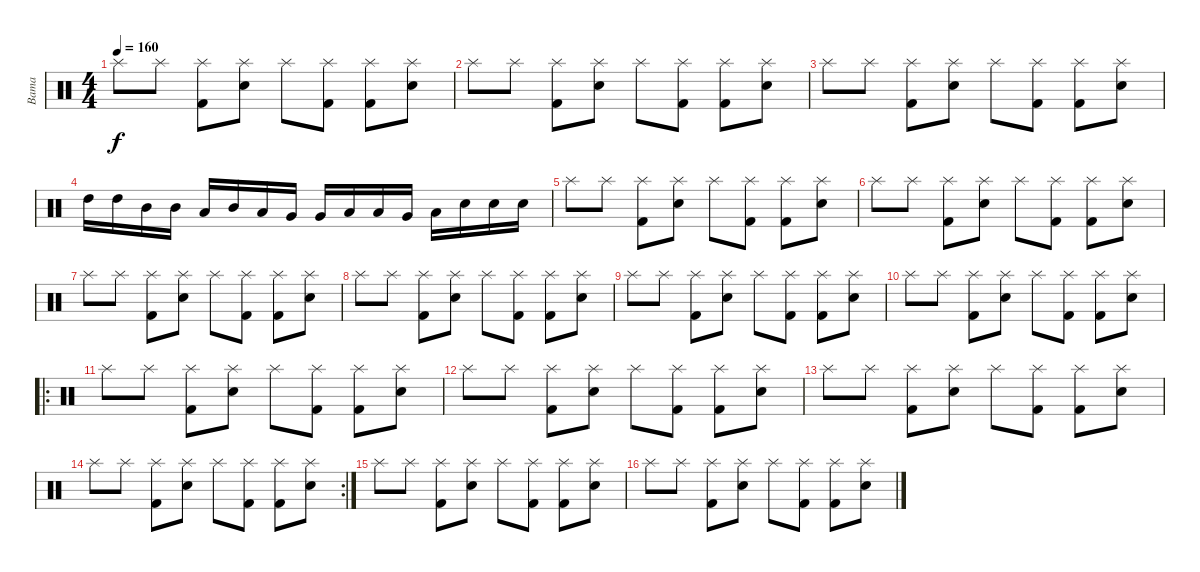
\track ("Bama" "Bama") {instrument percussion}
\staff {score}
\articulation defaults
\ts (4 4)
\tempo 160
\clef neutral
\ks c "Splash (hit)".8{dy f} "Splash (hit)".8
("Splash (hit)" "Kick (hit) 2").8 ("Splash (hit)" "Electric Snare (hit)").8 "Splash (hit)".8 ("Splash (hit)" "Kick (hit) 2").8 ("Splash (hit)" "Kick (hit) 2").8 ("Splash (hit)" "Electric Snare (hit)").8 |
"Splash (hit)".8 "Splash (hit)".8 ("Splash (hit)" "Kick (hit) 2").8 ("Splash (hit)" "Electric Snare (hit)").8 "Splash (hit)".8 ("Splash (hit)" "Kick (hit) 2").8 ("Splash (hit)" "Kick (hit) 2").8 ("Splash (hit)" "Electric Snare (hit)").8 |
"Splash (hit)".8 "Splash (hit)".8 ("Splash (hit)" "Kick (hit) 2").8 ("Splash (hit)" "Electric Snare (hit)").8 "Splash (hit)".8 ("Splash (hit)" "Kick (hit) 2").8 ("Splash (hit)" "Kick (hit) 2").8 ("Splash (hit)" "Electric Snare (hit)").8 |
"High Tom (hit)".16 "High Tom (hit)".16 "Mid Tom (hit)".16 "Mid Tom (hit)".16 "Low Tom (hit)".16 "Mid Tom (hit)".16 "Low Tom (hit)".16 "Very Low Tom (hit)".16 "Very Low Tom (hit)".16 "Low Floor Tom (hit)".16 "Low Floor Tom (hit)".16 "Very Low Tom (hit)".16 "Low Floor Tom (hit)".16 "Electric Snare (hit)".16 "Electric Snare (hit)".16 "Electric Snare (hit)".16 |
"Splash (hit)".8 "Splash (hit)".8 ("Splash (hit)" "Kick (hit) 2").8 ("Splash (hit)" "Electric Snare (hit)").8 "Splash (hit)".8 ("Splash (hit)" "Kick (hit) 2").8 ("Splash (hit)" "Kick (hit) 2").8 ("Splash (hit)" "Electric Snare (hit)").8 |
"Splash (hit)".8 "Splash (hit)".8 ("Splash (hit)" "Kick (hit) 2").8 ("Splash (hit)" "Electric Snare (hit)").8 "Splash (hit)".8 ("Splash (hit)" "Kick (hit) 2").8 ("Splash (hit)" "Kick (hit) 2").8 ("Splash (hit)" "Electric Snare (hit)").8 |
"Splash (hit)".8 "Splash (hit)".8 ("Splash (hit)" "Kick (hit) 2").8 ("Splash (hit)" "Electric Snare (hit)").8 "Splash (hit)".8 ("Splash (hit)" "Kick (hit) 2").8 ("Splash (hit)" "Kick (hit) 2").8 ("Splash (hit)" "Electric Snare (hit)").8 |
"Splash (hit)".8 "Splash (hit)".8 ("Splash (hit)" "Kick (hit) 2").8 ("Splash (hit)" "Electric Snare (hit)").8 "Splash (hit)".8 ("Splash (hit)" "Kick (hit) 2").8 ("Splash (hit)" "Kick (hit) 2").8 ("Splash (hit)" "Electric Snare (hit)").8 |
"Splash (hit)".8 "Splash (hit)".8 ("Splash (hit)" "Kick (hit) 2").8 ("Splash (hit)" "Electric Snare (hit)").8 "Splash (hit)".8 ("Splash (hit)" "Kick (hit) 2").8 ("Splash (hit)" "Kick (hit) 2").8 ("Splash (hit)" "Electric Snare (hit)").8 |
"Splash (hit)".8 "Splash (hit)".8 ("Splash (hit)" "Kick (hit) 2").8 ("Splash (hit)" "Electric Snare (hit)").8 "Splash (hit)".8 ("Splash (hit)" "Kick (hit) 2").8 ("Splash (hit)" "Kick (hit) 2").8 ("Splash (hit)" "Electric Snare (hit)").8 |
\ro "Splash (hit)".8 "Splash (hit)".8
("Splash (hit)" "Kick (hit) 2").8 ("Splash (hit)" "Electric Snare (hit)").8 "Splash (hit)".8 ("Splash (hit)" "Kick (hit) 2").8 ("Splash (hit)" "Kick (hit) 2").8 ("Splash (hit)" "Electric Snare (hit)").8 |
"Splash (hit)".8 "Splash (hit)".8 ("Splash (hit)" "Kick (hit) 2").8 ("Splash (hit)" "Electric Snare (hit)").8 "Splash (hit)".8 ("Splash (hit)" "Kick (hit) 2").8 ("Splash (hit)" "Kick (hit) 2").8 ("Splash (hit)" "Electric Snare (hit)").8 |
"Splash (hit)".8 "Splash (hit)".8 ("Splash (hit)" "Kick (hit) 2").8 ("Splash (hit)" "Electric Snare (hit)").8 "Splash (hit)".8 ("Splash (hit)" "Kick (hit) 2").8 ("Splash (hit)" "Kick (hit) 2").8 ("Splash (hit)" "Electric Snare (hit)").8 |
\rc 2 "Splash (hit)".8 "Splash (hit)".8
("Splash (hit)" "Kick (hit) 2").8 ("Splash (hit)" "Electric Snare (hit)").8 "Splash (hit)".8 ("Splash (hit)" "Kick (hit) 2").8 ("Splash (hit)" "Kick (hit) 2").8 ("Splash (hit)" "Electric Snare (hit)").8 |
"Splash (hit)".8 "Splash (hit)".8 ("Splash (hit)" "Kick (hit) 2").8 ("Splash (hit)" "Electric Snare (hit)").8 "Splash (hit)".8 ("Splash (hit)" "Kick (hit) 2").8 ("Splash (hit)" "Kick (hit) 2").8 ("Splash (hit)" "Electric Snare (hit)").8 |
"Splash (hit)".8 "Splash (hit)".8 ("Splash (hit)" "Kick (hit) 2").8 ("Splash (hit)" "Electric Snare (hit)").8 "Splash (hit)".8 ("Splash (hit)" "Kick (hit) 2").8 ("Splash (hit)" "Kick (hit) 2").8 ("Splash (hit)" "Electric Snare (hit)").8
